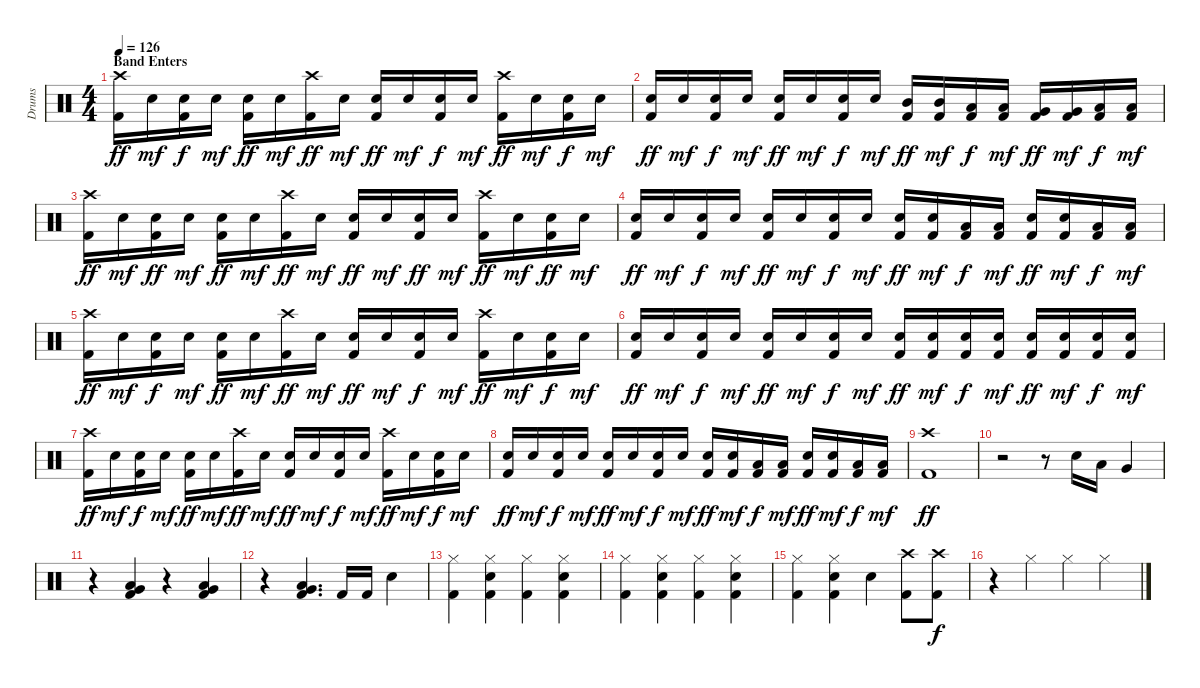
\track ("Drums" "Drums") {instrument percussion}
\staff {score}
\articulation defaults
\ts (4 4)
\section ("" "Band Enters")
\tempo 126
\clef neutral
\ks c
("Crash high (hit)" "Kick (hit) 2").16{dy ff} "Snare (hit) 2".16{dy mf} ("Snare (hit) 2" "Kick (hit) 2").16{dy f} "Snare (hit) 2".16{dy mf} ("Snare (hit) 2" "Kick (hit) 2").16{dy ff} "Snare (hit) 2".16{dy mf} ("Crash high (hit)" "Kick (hit) 2").16{dy ff} "Snare (hit) 2".16{dy mf} ("Snare (hit) 2" "Kick (hit) 2").16{dy ff} "Snare (hit) 2".16{dy mf} ("Snare (hit) 2" "Kick (hit) 2").16{dy f} "Snare (hit) 2".16{dy mf} ("Crash high (hit)" "Kick (hit) 2").16{dy ff} "Snare (hit) 2".16{dy mf} ("Snare (hit) 2" "Kick (hit) 2").16{dy f} "Snare (hit) 2".16{dy mf} |
("Snare (hit) 2" "Kick (hit) 2").16{dy ff} "Snare (hit) 2".16{dy mf} ("Snare (hit) 2" "Kick (hit) 2").16{dy f} "Snare (hit) 2".16{dy mf} ("Snare (hit) 2" "Kick (hit) 2").16{dy ff} "Snare (hit) 2".16{dy mf} ("Snare (hit) 2" "Kick (hit) 2").16{dy f} "Snare (hit) 2".16{dy mf} ("Mid Tom (hit)" "Kick (hit) 2").16{dy ff} ("Mid Tom (hit)" "Kick (hit) 2").16{dy mf} ("Low Tom (hit)" "Kick (hit) 2").16{dy f} ("Low Tom (hit)" "Kick (hit) 2").16{dy mf} ("Very Low Tom (hit)" "Kick (hit) 2").16{dy ff} ("Very Low Tom (hit)" "Kick (hit) 2").16{dy mf} ("Low Floor Tom (hit)" "Kick (hit) 2").16{dy f} ("Low Floor Tom (hit)" "Kick (hit) 2").16{dy mf} |
("Crash high (hit)" "Kick (hit) 2").16{dy ff} "Snare (hit) 2".16{dy mf} ("Snare (hit) 2" "Kick (hit) 2").16{dy ff} "Snare (hit) 2".16{dy mf} ("Snare (hit) 2" "Kick (hit) 2").16{dy ff} "Snare (hit) 2".16{dy mf} ("Crash high (hit)" "Kick (hit) 2").16{dy ff} "Snare (hit) 2".16{dy mf} ("Snare (hit) 2" "Kick (hit) 2").16{dy ff} "Snare (hit) 2".16{dy mf} ("Snare (hit) 2" "Kick (hit) 2").16{dy ff} "Snare (hit) 2".16{dy mf} ("Crash high (hit)" "Kick (hit) 2").16{dy ff} "Snare (hit) 2".16{dy mf} ("Snare (hit) 2" "Kick (hit) 2").16{dy ff} "Snare (hit) 2".16{dy mf} |
("Snare (hit) 2" "Kick (hit) 2").16{dy ff} "Snare (hit) 2".16{dy mf} ("Snare (hit) 2" "Kick (hit) 2").16{dy f} "Snare (hit) 2".16{dy mf} ("Snare (hit) 2" "Kick (hit) 2").16{dy ff} "Snare (hit) 2".16{dy mf} ("Snare (hit) 2" "Kick (hit) 2").16{dy f} "Snare (hit) 2".16{dy mf} ("Snare (hit) 2" "Kick (hit) 2").16{dy ff} ("Snare (hit) 2" "Kick (hit) 2").16{dy mf} ("Low Tom (hit)" "Kick (hit) 2").16{dy f} ("Low Tom (hit)" "Kick (hit) 2").16{dy mf} ("Snare (hit) 2" "Kick (hit) 2").16{dy ff} ("Snare (hit) 2" "Kick (hit) 2").16{dy mf} ("Low Floor Tom (hit)" "Kick (hit) 2").16{dy f} ("Low Floor Tom (hit)" "Kick (hit) 2").16{dy mf} |
("Crash high (hit)" "Kick (hit) 2").16{dy ff} "Snare (hit) 2".16{dy mf} ("Snare (hit) 2" "Kick (hit) 2").16{dy f} "Snare (hit) 2".16{dy mf} ("Snare (hit) 2" "Kick (hit) 2").16{dy ff} "Snare (hit) 2".16{dy mf} ("Crash high (hit)" "Kick (hit) 2").16{dy ff} "Snare (hit) 2".16{dy mf} ("Snare (hit) 2" "Kick (hit) 2").16{dy ff} "Snare (hit) 2".16{dy mf} ("Snare (hit) 2" "Kick (hit) 2").16{dy f} "Snare (hit) 2".16{dy mf} ("Crash high (hit)" "Kick (hit) 2").16{dy ff} "Snare (hit) 2".16{dy mf} ("Snare (hit) 2" "Kick (hit) 2").16{dy f} "Snare (hit) 2".16{dy mf} |
("Snare (hit) 2" "Kick (hit) 2").16{dy ff} "Snare (hit) 2".16{dy mf} ("Snare (hit) 2" "Kick (hit) 2").16{dy f} "Snare (hit) 2".16{dy mf} ("Snare (hit) 2" "Kick (hit) 2").16{dy ff} "Snare (hit) 2".16{dy mf} ("Snare (hit) 2" "Kick (hit) 2").16{dy f} "Snare (hit) 2".16{dy mf} ("Snare (hit) 2" "Kick (hit) 2").16{dy ff} ("Snare (hit) 2" "Kick (hit) 2").16{dy mf} ("Snare (hit) 2" "Kick (hit) 2").16{dy f} ("Snare (hit) 2" "Kick (hit) 2").16{dy mf} ("Snare (hit) 2" "Kick (hit) 2").16{dy ff} ("Snare (hit) 2" "Kick (hit) 2").16{dy mf} ("Snare (hit) 2" "Kick (hit) 2").16{dy f} ("Snare (hit) 2" "Kick (hit) 2").16{dy mf} |
("Crash high (hit)" "Kick (hit) 2").16{dy ff} "Snare (hit) 2".16{dy mf} ("Snare (hit) 2" "Kick (hit) 2").16{dy f} "Snare (hit) 2".16{dy mf} ("Snare (hit) 2" "Kick (hit) 2").16{dy ff} "Snare (hit) 2".16{dy mf} ("Crash high (hit)" "Kick (hit) 2").16{dy ff} "Snare (hit) 2".16{dy mf} ("Snare (hit) 2" "Kick (hit) 2").16{dy ff} "Snare (hit) 2".16{dy mf} ("Snare (hit) 2" "Kick (hit) 2").16{dy f} "Snare (hit) 2".16{dy mf} ("Crash high (hit)" "Kick (hit) 2").16{dy ff} "Snare (hit) 2".16{dy mf} ("Snare (hit) 2" "Kick (hit) 2").16{dy f} "Snare (hit) 2".16{dy mf} |
("Snare (hit) 2" "Kick (hit) 2").16{dy ff} "Snare (hit) 2".16{dy mf} ("Snare (hit) 2" "Kick (hit) 2").16{dy f} "Snare (hit) 2".16{dy mf} ("Snare (hit) 2" "Kick (hit) 2").16{dy ff} "Snare (hit) 2".16{dy mf} ("Snare (hit) 2" "Kick (hit) 2").16{dy f} "Snare (hit) 2".16{dy mf} ("Snare (hit) 2" "Kick (hit) 2").16{dy ff} ("Snare (hit) 2" "Kick (hit) 2").16{dy mf} ("Low Tom (hit)" "Kick (hit) 2").16{dy f} ("Low Tom (hit)" "Kick (hit) 2").16{dy mf} ("Snare (hit) 2" "Kick (hit) 2").16{dy ff} ("Snare (hit) 2" "Kick (hit) 2").16{dy mf} ("Low Floor Tom (hit)" "Kick (hit) 2").16{dy f} ("Low Floor Tom (hit)" "Kick (hit) 2").16{dy mf} |
("Crash high (hit)" "Kick (hit) 2").1{dy ff} |
r.2 r.8 "Snare (hit) 2".16 "Low Tom (hit)".16 "Very Low Tom (hit)".4 |
r.4 ("Low Tom (hit)" "Very Low Tom (hit)" "Kick (hit) 2").4 r.4 ("Low Tom (hit)" "Very Low Tom (hit)" "Kick (hit) 2").4 |
r.4 ("Low Tom (hit)" "Very Low Tom (hit)" "Kick (hit) 2").4{d} "Kick (hit) 2".16 "Kick (hit) 2".16 "Snare (hit) 2".4 |
("Hi-Hat (closed)" "Kick (hit) 2").4 ("Hi-Hat (closed)" "Snare (hit) 2" "Kick (hit) 2").4 ("Hi-Hat (closed)" "Kick (hit) 2").4 ("Hi-Hat (closed)" "Snare (hit) 2" "Kick (hit) 2").4 |
("Hi-Hat (closed)" "Kick (hit) 2").4 ("Hi-Hat (closed)" "Snare (hit) 2" "Kick (hit) 2").4 ("Hi-Hat (closed)" "Kick (hit) 2").4 ("Hi-Hat (closed)" "Snare (hit) 2" "Kick (hit) 2").4 |
("Hi-Hat (closed)" "Kick (hit) 2").4 ("Hi-Hat (closed)" "Snare (hit) 2" "Kick (hit) 2").4 "Snare (hit) 2".4 ("Crash high (hit)" "Kick (hit) 2").8 ("Crash high (hit)" "Kick (hit) 2").8{dy f} |
r.4 "Hi-Hat (closed)".4 "Hi-Hat (closed)".4 "Hi-Hat (closed)".4
